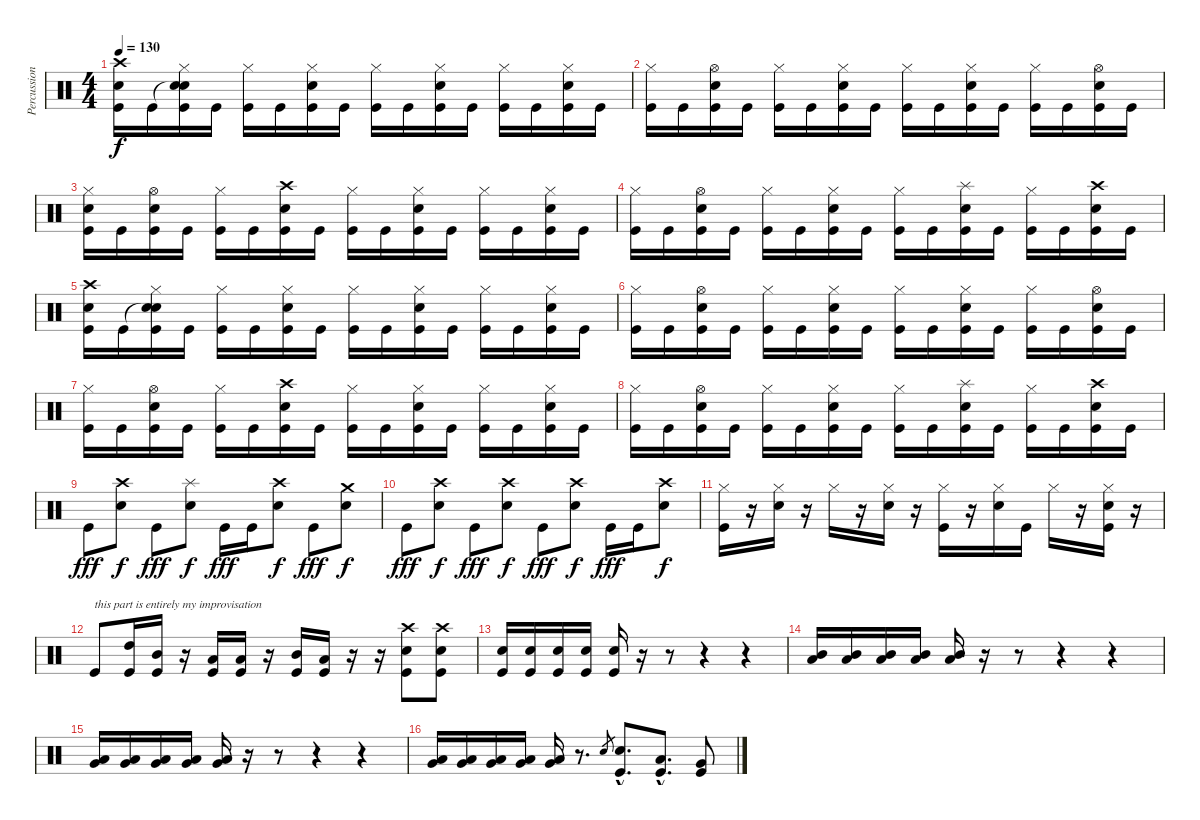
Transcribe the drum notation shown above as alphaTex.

\track ("Percussion" "Percussion") {instrument percussion}
\staff {score}
\articulation defaults
\ts (4 4)
\tempo 130
\clef neutral
\ks c
("Crash high (hit)" "Snare (hit) 2" "Kick (hit)").16{dy f} "Kick (hit)".16 ("Snare (hit)"{t} "Hi-Hat (closed)" "Snare (hit) 2" "Kick (hit)").16 "Kick (hit)".16 ("Hi-Hat (closed)" "Kick (hit)").16 "Kick (hit)".16 ("Hi-Hat (closed)" "Snare (hit) 2" "Kick (hit)").16 "Kick (hit)".16 ("Hi-Hat (closed)" "Kick (hit)").16 "Kick (hit)".16 ("Hi-Hat (closed)" "Snare (hit) 2" "Kick (hit)").16 "Kick (hit)".16 ("Hi-Hat (closed)" "Kick (hit)").16 "Kick (hit)".16 ("Hi-Hat (closed)" "Snare (hit) 2" "Kick (hit)").16 "Kick (hit)".16 |
("Hi-Hat (closed)" "Kick (hit)").16 "Kick (hit)".16 ("Hi-Hat (open)" "Snare (hit) 2" "Kick (hit)").16 "Kick (hit)".16 ("Hi-Hat (closed)" "Kick (hit)").16 "Kick (hit)".16 ("Hi-Hat (closed)" "Snare (hit) 2" "Kick (hit)").16 "Kick (hit)".16 ("Hi-Hat (closed)" "Kick (hit)").16 "Kick (hit)".16 ("Hi-Hat (closed)" "Snare (hit) 2" "Kick (hit)").16 "Kick (hit)".16 ("Hi-Hat (closed)" "Kick (hit)").16 "Kick (hit)".16 ("Hi-Hat (open)" "Snare (hit) 2" "Kick (hit)").16 "Kick (hit)".16 |
("Hi-Hat (closed)" "Snare (hit) 2" "Kick (hit)").16 "Kick (hit)".16 ("Hi-Hat (open)" "Snare (hit) 2" "Kick (hit)").16 "Kick (hit)".16 ("Hi-Hat (closed)" "Kick (hit)").16 "Kick (hit)".16 ("Crash high (hit)" "Snare (hit) 2" "Kick (hit)").16 "Kick (hit)".16 ("Hi-Hat (closed)" "Kick (hit)").16 "Kick (hit)".16 ("Hi-Hat (closed)" "Snare (hit) 2" "Kick (hit)").16 "Kick (hit)".16 ("Hi-Hat (closed)" "Kick (hit)").16 "Kick (hit)".16 ("Hi-Hat (closed)" "Snare (hit) 2" "Kick (hit)").16 "Kick (hit)".16 |
("Hi-Hat (closed)" "Kick (hit)").16 "Kick (hit)".16 ("Hi-Hat (open)" "Snare (hit) 2" "Kick (hit)").16 "Kick (hit)".16 ("Hi-Hat (closed)" "Kick (hit)").16 "Kick (hit)".16 ("Hi-Hat (closed)" "Snare (hit) 2" "Kick (hit)").16 "Kick (hit)".16 ("Hi-Hat (closed)" "Kick (hit)").16 "Kick (hit)".16 ("Splash (hit)" "Snare (hit) 2" "Kick (hit)").16 "Kick (hit)".16 ("Hi-Hat (closed)" "Kick (hit)").16 "Kick (hit)".16 ("Crash high (hit)" "Snare (hit) 2" "Kick (hit)").16 "Kick (hit)".16 |
("Crash high (hit)" "Snare (hit) 2" "Kick (hit)").16 "Kick (hit)".16 ("Snare (hit)"{t} "Hi-Hat (closed)" "Snare (hit) 2" "Kick (hit)").16 "Kick (hit)".16 ("Hi-Hat (closed)" "Kick (hit)").16 "Kick (hit)".16 ("Hi-Hat (closed)" "Snare (hit) 2" "Kick (hit)").16 "Kick (hit)".16 ("Hi-Hat (closed)" "Kick (hit)").16 "Kick (hit)".16 ("Hi-Hat (closed)" "Snare (hit) 2" "Kick (hit)").16 "Kick (hit)".16 ("Hi-Hat (closed)" "Kick (hit)").16 "Kick (hit)".16 ("Hi-Hat (closed)" "Snare (hit) 2" "Kick (hit)").16 "Kick (hit)".16 |
("Hi-Hat (closed)" "Kick (hit)").16 "Kick (hit)".16 ("Hi-Hat (open)" "Snare (hit) 2" "Kick (hit)").16 "Kick (hit)".16 ("Hi-Hat (closed)" "Kick (hit)").16 "Kick (hit)".16 ("Hi-Hat (closed)" "Snare (hit) 2" "Kick (hit)").16 "Kick (hit)".16 ("Hi-Hat (closed)" "Kick (hit)").16 "Kick (hit)".16 ("Hi-Hat (closed)" "Snare (hit) 2" "Kick (hit)").16 "Kick (hit)".16 ("Hi-Hat (closed)" "Kick (hit)").16 "Kick (hit)".16 ("Hi-Hat (open)" "Snare (hit) 2" "Kick (hit)").16 "Kick (hit)".16 |
("Hi-Hat (closed)" "Kick (hit)").16 "Kick (hit)".16 ("Hi-Hat (open)" "Snare (hit) 2" "Kick (hit)").16 "Kick (hit)".16 ("Hi-Hat (closed)" "Kick (hit)").16 "Kick (hit)".16 ("Crash high (hit)" "Snare (hit) 2" "Kick (hit)").16 "Kick (hit)".16 ("Hi-Hat (closed)" "Kick (hit)").16 "Kick (hit)".16 ("Hi-Hat (closed)" "Snare (hit) 2" "Kick (hit)").16 "Kick (hit)".16 ("Hi-Hat (closed)" "Kick (hit)").16 "Kick (hit)".16 ("Hi-Hat (closed)" "Snare (hit) 2" "Kick (hit)").16 "Kick (hit)".16 |
("Hi-Hat (closed)" "Kick (hit)").16 "Kick (hit)".16 ("Hi-Hat (open)" "Snare (hit) 2" "Kick (hit)").16 "Kick (hit)".16 ("Hi-Hat (closed)" "Kick (hit)").16 "Kick (hit)".16 ("Hi-Hat (closed)" "Snare (hit) 2" "Kick (hit)").16 "Kick (hit)".16 ("Hi-Hat (closed)" "Kick (hit)").16 "Kick (hit)".16 ("Splash (hit)" "Snare (hit) 2" "Kick (hit)").16 "Kick (hit)".16 ("Hi-Hat (closed)" "Kick (hit)").16 "Kick (hit)".16 ("Crash high (hit)" "Snare (hit) 2" "Kick (hit)").16 "Kick (hit)".16 |
"Kick (hit)".8{dy fff} ("Crash high (hit)" "Snare (hit) 2").8{dy f} "Kick (hit)".8{dy fff} ("Splash (hit)" "Snare (hit) 2").8{dy f} "Kick (hit)".16{dy fff} "Kick (hit)".16 ("Crash high (hit)" "Snare (hit) 2").8{dy f} "Kick (hit)".8{dy fff} ("Crash medium (hit)" "Snare (hit) 2").8{dy f} |
"Kick (hit)".8{dy fff} ("Crash high (hit)" "Snare (hit) 2").8{dy f} "Kick (hit)".8{dy fff} ("Crash high (hit)" "Snare (hit) 2").8{dy f} "Kick (hit)".8{dy fff} ("Crash high (hit)" "Snare (hit) 2").8{dy f} "Kick (hit)".16{dy fff} "Kick (hit)".16 ("Crash high (hit)" "Snare (hit) 2").8{dy f} |
("Hi-Hat (closed)" "Kick (hit)").16 r.16 ("Hi-Hat (closed)" "Snare (hit) 2").16 r.16 "Hi-Hat (closed)".16 r.16 ("Hi-Hat (closed)" "Snare (hit) 2").16 r.16 ("Hi-Hat (closed)" "Kick (hit)").16 r.16 ("Hi-Hat (closed)" "Snare (hit) 2").16 "Kick (hit)".16 "Hi-Hat (closed)".16 r.16 ("Hi-Hat (closed)" "Snare (hit) 2" "Kick (hit)").16 r.16 |
"Kick (hit)".8{txt "this part is entirely my improvisation"} ("High Tom (hit)" "Kick (hit)").16 ("Mid Tom (hit)" "Kick (hit)").16 r.16 ("Low Tom (hit)" "Kick (hit)").16 ("Low Tom (hit)" "Kick (hit)").16 r.16 ("Mid Tom (hit)" "Kick (hit)").16 ("Low Tom (hit)" "Kick (hit)").16 r.16 r.16 ("Crash high (hit)" "Snare (hit) 2" "Kick (hit)").8 ("Crash high (hit)" "Snare (hit) 2" "Kick (hit)").8 |
("Snare (hit) 2" "Kick (hit)").16 ("Snare (hit) 2" "Kick (hit)").16 ("Snare (hit) 2" "Kick (hit)").16 ("Snare (hit) 2" "Kick (hit)").16 ("Snare (hit) 2" "Kick (hit)").16 r.16 r.8 r.4 r.4 |
("Mid Tom (hit)" "Low Tom (hit)").16 ("Mid Tom (hit)" "Low Tom (hit)").16 ("Mid Tom (hit)" "Low Tom (hit)").16 ("Mid Tom (hit)" "Low Tom (hit)").16 ("Mid Tom (hit)" "Low Tom (hit)").16 r.16 r.8 r.4 r.4 |
("Low Tom (hit)" "Very Low Tom (hit)").16 ("Low Tom (hit)" "Very Low Tom (hit)").16 ("Low Tom (hit)" "Very Low Tom (hit)").16 ("Low Tom (hit)" "Very Low Tom (hit)").16 ("Low Tom (hit)" "Very Low Tom (hit)").16 r.16 r.8 r.4 r.4 |
("Very Low Tom (hit)" "Low Floor Tom (hit)").16 ("Very Low Tom (hit)" "Low Floor Tom (hit)").16 ("Very Low Tom (hit)" "Low Floor Tom (hit)").16 ("Very Low Tom (hit)" "Low Floor Tom (hit)").16 ("Very Low Tom (hit)" "Low Floor Tom (hit)").16 r.8{d} "Snare (hit) 2".8{gr} ("Snare (hit) 2"{hac} "Kick (hit)"{hac}).8{d} ("Low Tom (hit)"{hac} "Kick (hit)"{hac}).8{d} ("Very Low Tom (hit)" "Kick (hit)").8
